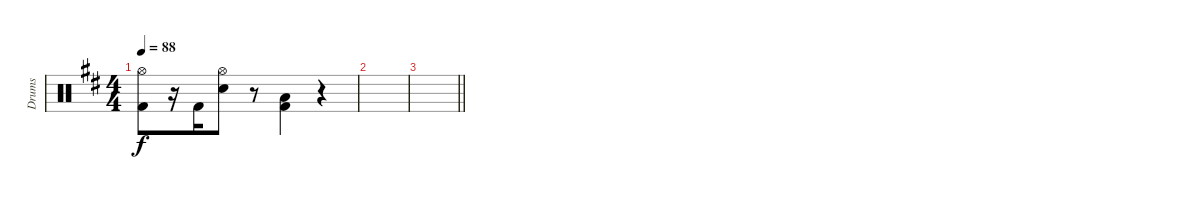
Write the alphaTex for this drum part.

\track ("Drums" "Drums") {instrument percussion}
\staff {score}
\articulation defaults
\ts (4 4)
\tempo 88
\clef neutral
\ks bminor
("Hi-Hat (open)" "Kick (hit) 2").8{dy f} r.16 "Kick (hit) 2".16{beam merge} ("Hi-Hat (open)" "Electric Snare (hit)").8{beam merge} r.8 ("Low Floor Tom (hit)" "Kick (hit) 2").4{beam merge} r.4 |
|
\barLineRight lightlight
